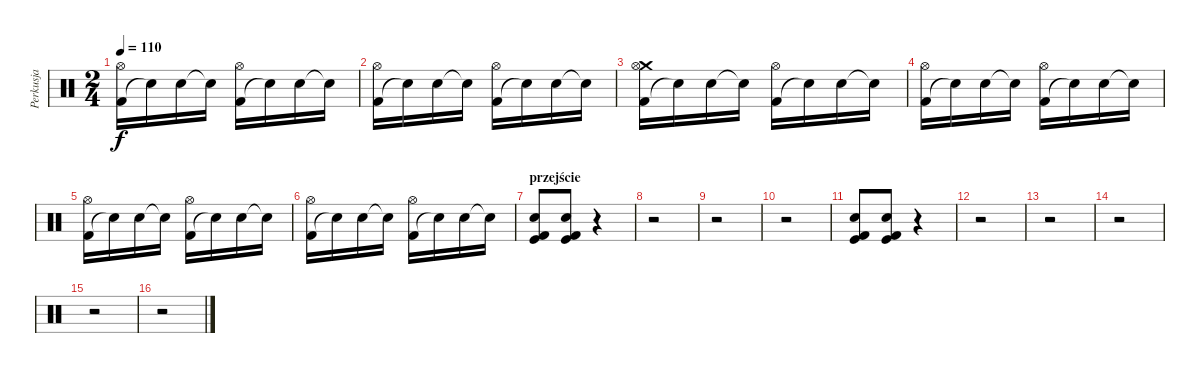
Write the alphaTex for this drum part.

\track ("Perkusja" "Perkusja") {instrument percussion}
\staff {score}
\articulation defaults
\ts (2 4)
\tempo 110
\clef neutral
\ks c
("Kick (hit) 2" "Hi-Hat (open)").16{dy f} "Snare (hit)"{t}.16 "Electric Snare (hit)".16 "Snare (hit)"{t}.16 ("Kick (hit) 2" "Hi-Hat (open)").16 "Snare (hit)"{t}.16 "Electric Snare (hit)".16 "Snare (hit)"{t}.16 |
("Kick (hit) 2" "Hi-Hat (open)").16 "Snare (hit)"{t}.16 "Electric Snare (hit)".16 "Snare (hit)"{t}.16 ("Kick (hit) 2" "Hi-Hat (open)").16 "Snare (hit)"{t}.16 "Electric Snare (hit)".16 "Snare (hit)"{t}.16 |
("Kick (hit) 2" "Crash medium (hit)" "Hi-Hat (open)").16 "Snare (hit)"{t}.16 "Electric Snare (hit)".16 "Snare (hit)"{t}.16 ("Kick (hit) 2" "Hi-Hat (open)").16 "Snare (hit)"{t}.16 "Electric Snare (hit)".16 "Snare (hit)"{t}.16 |
("Kick (hit) 2" "Hi-Hat (open)").16 "Snare (hit)"{t}.16 "Electric Snare (hit)".16 "Snare (hit)"{t}.16 ("Kick (hit) 2" "Hi-Hat (open)").16 "Snare (hit)"{t}.16 "Electric Snare (hit)".16 "Snare (hit)"{t}.16 |
("Kick (hit) 2" "Hi-Hat (open)").16 "Snare (hit)"{t}.16 "Electric Snare (hit)".16 "Snare (hit)"{t}.16 ("Kick (hit) 2" "Hi-Hat (open)").16 "Snare (hit)"{t}.16 "Electric Snare (hit)".16 "Snare (hit)"{t}.16 |
("Kick (hit) 2" "Hi-Hat (open)").16 "Snare (hit)"{t}.16 "Electric Snare (hit)".16 "Snare (hit)"{t}.16 ("Kick (hit) 2" "Hi-Hat (open)").16 "Snare (hit)"{t}.16 "Electric Snare (hit)".16 "Snare (hit)"{t}.16 |
\section ("" "przejście")
("Kick (hit)" "Kick (hit) 2" "Snare (hit) 2").8 ("Kick (hit)" "Kick (hit) 2" "Snare (hit) 2").8 r.4 |
r.2 |
r.2 |
r.2 |
("Kick (hit)" "Kick (hit) 2" "Snare (hit) 2").8 ("Kick (hit)" "Kick (hit) 2" "Snare (hit) 2").8 r.4 |
r.2 |
r.2 |
r.2 |
r.2 |
r.2
